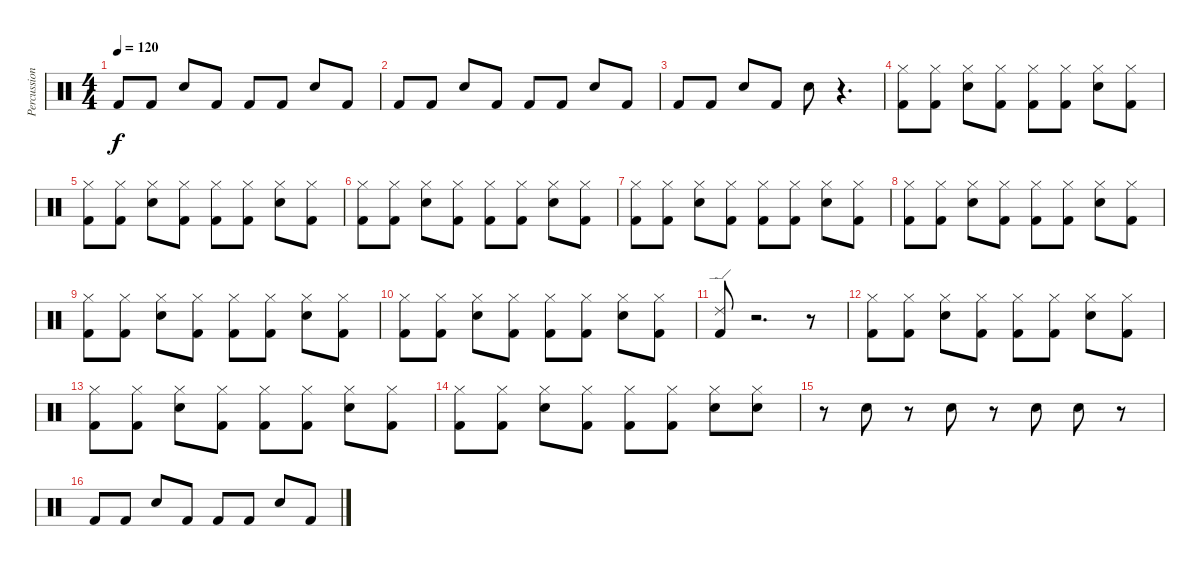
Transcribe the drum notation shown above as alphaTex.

\track ("Percussion" "Percussion") {instrument percussion}
\staff {score}
\articulation defaults
\ts (4 4)
\tempo 120
\clef neutral
\ks c "Kick (hit) 2".8{dy f} "Kick (hit) 2".8 "Snare (hit) 2".8 "Kick (hit) 2".8 "Kick (hit) 2".8 "Kick (hit) 2".8 "Snare (hit) 2".8 "Kick (hit) 2".8
|
"Kick (hit) 2".8 "Kick (hit) 2".8 "Snare (hit) 2".8 "Kick (hit) 2".8 "Kick (hit) 2".8 "Kick (hit) 2".8 "Snare (hit) 2".8 "Kick (hit) 2".8 |
"Kick (hit) 2".8 "Kick (hit) 2".8 "Snare (hit) 2".8 "Kick (hit) 2".8 "Snare (hit) 2".8 r.4{d} |
("Kick (hit) 2" "Hi-Hat (closed)").8 ("Kick (hit) 2" "Hi-Hat (closed)").8 ("Snare (hit) 2" "Hi-Hat (closed)").8 ("Kick (hit) 2" "Hi-Hat (closed)").8 ("Kick (hit) 2" "Hi-Hat (closed)").8 ("Kick (hit) 2" "Hi-Hat (closed)").8 ("Snare (hit) 2" "Hi-Hat (closed)").8 ("Kick (hit) 2" "Hi-Hat (closed)").8 |
("Hi-Hat (closed)" "Kick (hit) 2").8 ("Hi-Hat (closed)" "Kick (hit) 2").8 ("Hi-Hat (closed)" "Snare (hit) 2").8 ("Hi-Hat (closed)" "Kick (hit) 2").8 ("Hi-Hat (closed)" "Kick (hit) 2").8 ("Hi-Hat (closed)" "Kick (hit) 2").8 ("Hi-Hat (closed)" "Snare (hit) 2").8 ("Hi-Hat (closed)" "Kick (hit) 2").8 |
("Hi-Hat (closed)" "Kick (hit) 2").8 ("Hi-Hat (closed)" "Kick (hit) 2").8 ("Hi-Hat (closed)" "Snare (hit) 2").8 ("Hi-Hat (closed)" "Kick (hit) 2").8 ("Hi-Hat (closed)" "Kick (hit) 2").8 ("Hi-Hat (closed)" "Kick (hit) 2").8 ("Hi-Hat (closed)" "Snare (hit) 2").8 ("Hi-Hat (closed)" "Kick (hit) 2").8 |
("Hi-Hat (closed)" "Kick (hit) 2").8 ("Hi-Hat (closed)" "Kick (hit) 2").8 ("Hi-Hat (closed)" "Snare (hit) 2").8 ("Hi-Hat (closed)" "Kick (hit) 2").8 ("Hi-Hat (closed)" "Kick (hit) 2").8 ("Hi-Hat (closed)" "Kick (hit) 2").8 ("Hi-Hat (closed)" "Snare (hit) 2").8 ("Hi-Hat (closed)" "Kick (hit) 2").8 |
("Hi-Hat (closed)" "Kick (hit) 2").8 ("Hi-Hat (closed)" "Kick (hit) 2").8 ("Hi-Hat (closed)" "Snare (hit) 2").8 ("Hi-Hat (closed)" "Kick (hit) 2").8 ("Hi-Hat (closed)" "Kick (hit) 2").8 ("Hi-Hat (closed)" "Kick (hit) 2").8 ("Hi-Hat (closed)" "Snare (hit) 2").8 ("Hi-Hat (closed)" "Kick (hit) 2").8 |
("Hi-Hat (closed)" "Kick (hit) 2").8 ("Hi-Hat (closed)" "Kick (hit) 2").8 ("Hi-Hat (closed)" "Snare (hit) 2").8 ("Hi-Hat (closed)" "Kick (hit) 2").8 ("Hi-Hat (closed)" "Kick (hit) 2").8 ("Hi-Hat (closed)" "Kick (hit) 2").8 ("Hi-Hat (closed)" "Snare (hit) 2").8 ("Hi-Hat (closed)" "Kick (hit) 2").8 |
("Hi-Hat (closed)" "Kick (hit) 2").8 ("Hi-Hat (closed)" "Kick (hit) 2").8 ("Hi-Hat (closed)" "Snare (hit) 2").8 ("Hi-Hat (closed)" "Kick (hit) 2").8 ("Hi-Hat (closed)" "Kick (hit) 2").8 ("Hi-Hat (closed)" "Kick (hit) 2").8 ("Hi-Hat (closed)" "Snare (hit) 2").8 ("Hi-Hat (closed)" "Kick (hit) 2").8 |
("Kick (hit) 2" "Ride (edge) 2").8 r.2{d} r.8 |
("Hi-Hat (closed)" "Kick (hit) 2").8 ("Hi-Hat (closed)" "Kick (hit) 2").8 ("Hi-Hat (closed)" "Snare (hit) 2").8 ("Hi-Hat (closed)" "Kick (hit) 2").8 ("Hi-Hat (closed)" "Kick (hit) 2").8 ("Hi-Hat (closed)" "Kick (hit) 2").8 ("Hi-Hat (closed)" "Snare (hit) 2").8 ("Hi-Hat (closed)" "Kick (hit) 2").8 |
("Hi-Hat (closed)" "Kick (hit) 2").8 ("Hi-Hat (closed)" "Kick (hit) 2").8 ("Hi-Hat (closed)" "Snare (hit) 2").8 ("Hi-Hat (closed)" "Kick (hit) 2").8 ("Hi-Hat (closed)" "Kick (hit) 2").8 ("Hi-Hat (closed)" "Kick (hit) 2").8 ("Hi-Hat (closed)" "Snare (hit) 2").8 ("Hi-Hat (closed)" "Kick (hit) 2").8 |
("Kick (hit) 2" "Hi-Hat (closed)").8 ("Kick (hit) 2" "Hi-Hat (closed)").8 ("Snare (hit) 2" "Hi-Hat (closed)").8 ("Kick (hit) 2" "Hi-Hat (closed)").8 ("Kick (hit) 2" "Hi-Hat (closed)").8 ("Kick (hit) 2" "Hi-Hat (closed)").8 ("Snare (hit) 2" "Hi-Hat (closed)").8 ("Snare (hit) 2" "Hi-Hat (closed)").8 |
r.8 "Snare (hit) 2".8 r.8 "Snare (hit) 2".8 r.8 "Snare (hit) 2".8 "Snare (hit) 2".8 r.8 |
"Kick (hit) 2".8 "Kick (hit) 2".8 "Snare (hit) 2".8 "Kick (hit) 2".8 "Kick (hit) 2".8 "Kick (hit) 2".8 "Snare (hit) 2".8 "Kick (hit) 2".8
